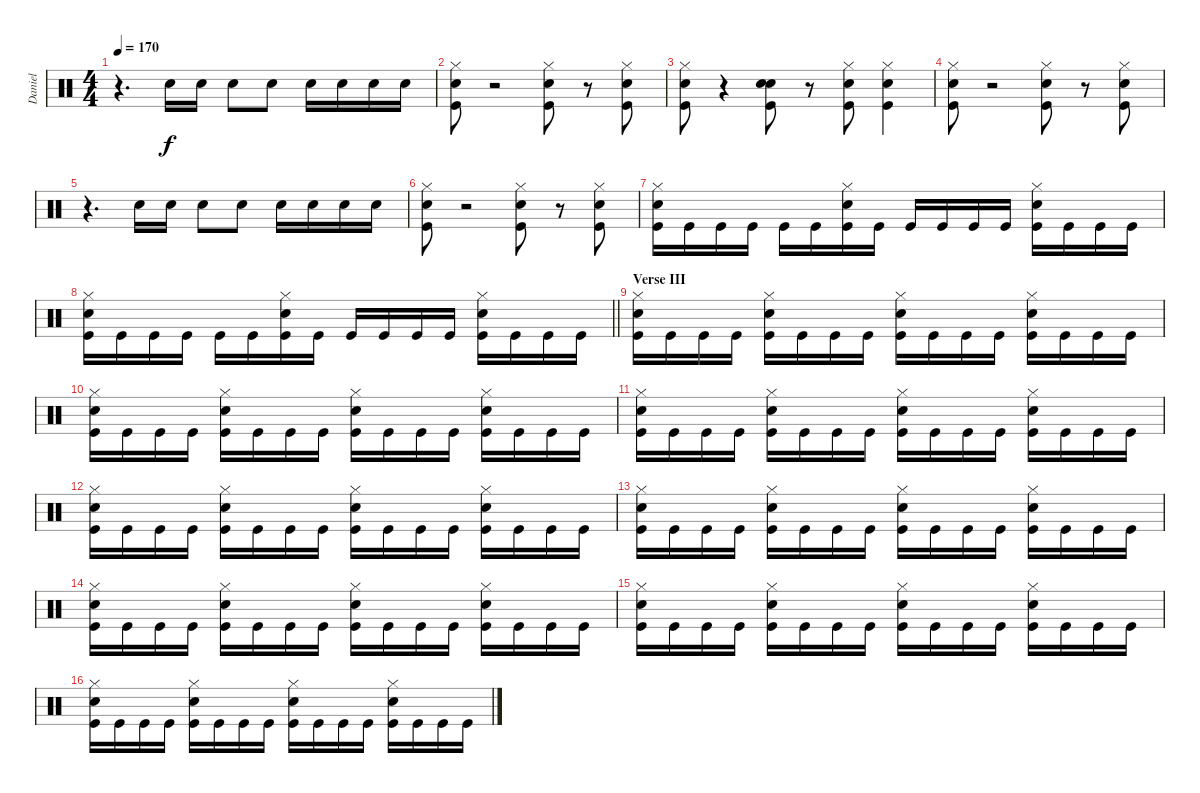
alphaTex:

\track ("Daniel" "Daniel") {instrument percussion}
\staff {score}
\articulation defaults
\ts (4 4)
\tempo 170
\clef neutral
\ks c
r.4{d dy f} "Snare (hit) 2".16 "Snare (hit) 2".16 "Snare (hit) 2".8 "Snare (hit) 2".8 "Snare (hit) 2".16 "Snare (hit) 2".16 "Snare (hit) 2".16 "Snare (hit) 2".16 |
("Kick (hit)" "Snare (hit) 2" "Hi-Hat (closed)").8 r.2 ("Kick (hit)" "Snare (hit) 2" "Hi-Hat (closed)").8 r.8 ("Kick (hit)" "Snare (hit) 2" "Hi-Hat (closed)").8 |
("Kick (hit)" "Snare (hit) 2" "Hi-Hat (closed)").8 r.4 ("Kick (hit)" "Snare (hit) 2" "Metronome (bell)").8 r.8 ("Kick (hit)" "Snare (hit) 2" "Hi-Hat (closed)").8 ("Kick (hit)" "Snare (hit) 2" "Hi-Hat (closed)").4 |
("Kick (hit)" "Snare (hit) 2" "Hi-Hat (closed)").8 r.2 ("Kick (hit)" "Snare (hit) 2" "Hi-Hat (closed)").8 r.8 ("Kick (hit)" "Snare (hit) 2" "Hi-Hat (closed)").8 |
r.4{d} "Snare (hit) 2".16 "Snare (hit) 2".16 "Snare (hit) 2".8 "Snare (hit) 2".8 "Snare (hit) 2".16 "Snare (hit) 2".16 "Snare (hit) 2".16 "Snare (hit) 2".16 |
("Kick (hit)" "Snare (hit) 2" "Hi-Hat (closed)").8 r.2 ("Kick (hit)" "Snare (hit) 2" "Hi-Hat (closed)").8 r.8 ("Kick (hit)" "Snare (hit) 2" "Hi-Hat (closed)").8 |
("Kick (hit)" "Snare (hit) 2" "Hi-Hat (closed)").16 "Kick (hit)".16 "Kick (hit)".16 "Kick (hit)".16 "Kick (hit)".16 "Kick (hit)".16 ("Kick (hit)" "Snare (hit) 2" "Hi-Hat (closed)").16 "Kick (hit)".16 "Kick (hit)".16 "Kick (hit)".16 "Kick (hit)".16 "Kick (hit)".16 ("Kick (hit)" "Snare (hit) 2" "Hi-Hat (closed)").16 "Kick (hit)".16 "Kick (hit)".16 "Kick (hit)".16 |
\barLineRight lightlight
("Kick (hit)" "Snare (hit) 2" "Hi-Hat (closed)").16 "Kick (hit)".16 "Kick (hit)".16 "Kick (hit)".16 "Kick (hit)".16 "Kick (hit)".16 ("Kick (hit)" "Snare (hit) 2" "Hi-Hat (closed)").16 "Kick (hit)".16 "Kick (hit)".16 "Kick (hit)".16 "Kick (hit)".16 "Kick (hit)".16 ("Kick (hit)" "Snare (hit) 2" "Hi-Hat (closed)").16 "Kick (hit)".16 "Kick (hit)".16 "Kick (hit)".16 |
\section ("" "Verse III")
("Kick (hit)" "Snare (hit) 2" "Hi-Hat (closed)").16 "Kick (hit)".16 "Kick (hit)".16 "Kick (hit)".16 ("Kick (hit)" "Snare (hit) 2" "Hi-Hat (closed)").16 "Kick (hit)".16 "Kick (hit)".16 "Kick (hit)".16 ("Kick (hit)" "Snare (hit) 2" "Hi-Hat (closed)").16 "Kick (hit)".16 "Kick (hit)".16 "Kick (hit)".16 ("Kick (hit)" "Snare (hit) 2" "Hi-Hat (closed)").16 "Kick (hit)".16 "Kick (hit)".16 "Kick (hit)".16 |
("Kick (hit)" "Snare (hit) 2" "Hi-Hat (closed)").16 "Kick (hit)".16 "Kick (hit)".16 "Kick (hit)".16 ("Kick (hit)" "Snare (hit) 2" "Hi-Hat (closed)").16 "Kick (hit)".16 "Kick (hit)".16 "Kick (hit)".16 ("Kick (hit)" "Snare (hit) 2" "Hi-Hat (closed)").16 "Kick (hit)".16 "Kick (hit)".16 "Kick (hit)".16 ("Kick (hit)" "Snare (hit) 2" "Hi-Hat (closed)").16 "Kick (hit)".16 "Kick (hit)".16 "Kick (hit)".16 |
("Kick (hit)" "Snare (hit) 2" "Hi-Hat (closed)").16 "Kick (hit)".16 "Kick (hit)".16 "Kick (hit)".16 ("Kick (hit)" "Snare (hit) 2" "Hi-Hat (closed)").16 "Kick (hit)".16 "Kick (hit)".16 "Kick (hit)".16 ("Kick (hit)" "Snare (hit) 2" "Hi-Hat (closed)").16 "Kick (hit)".16 "Kick (hit)".16 "Kick (hit)".16 ("Kick (hit)" "Snare (hit) 2" "Hi-Hat (closed)").16 "Kick (hit)".16 "Kick (hit)".16 "Kick (hit)".16 |
("Kick (hit)" "Snare (hit) 2" "Hi-Hat (closed)").16 "Kick (hit)".16 "Kick (hit)".16 "Kick (hit)".16 ("Kick (hit)" "Snare (hit) 2" "Hi-Hat (closed)").16 "Kick (hit)".16 "Kick (hit)".16 "Kick (hit)".16 ("Kick (hit)" "Snare (hit) 2" "Hi-Hat (closed)").16 "Kick (hit)".16 "Kick (hit)".16 "Kick (hit)".16 ("Kick (hit)" "Snare (hit) 2" "Hi-Hat (closed)").16 "Kick (hit)".16 "Kick (hit)".16 "Kick (hit)".16 |
("Kick (hit)" "Snare (hit) 2" "Hi-Hat (closed)").16 "Kick (hit)".16 "Kick (hit)".16 "Kick (hit)".16 ("Kick (hit)" "Snare (hit) 2" "Hi-Hat (closed)").16 "Kick (hit)".16 "Kick (hit)".16 "Kick (hit)".16 ("Kick (hit)" "Snare (hit) 2" "Hi-Hat (closed)").16 "Kick (hit)".16 "Kick (hit)".16 "Kick (hit)".16 ("Kick (hit)" "Snare (hit) 2" "Hi-Hat (closed)").16 "Kick (hit)".16 "Kick (hit)".16 "Kick (hit)".16 |
("Kick (hit)" "Snare (hit) 2" "Hi-Hat (closed)").16 "Kick (hit)".16 "Kick (hit)".16 "Kick (hit)".16 ("Kick (hit)" "Snare (hit) 2" "Hi-Hat (closed)").16 "Kick (hit)".16 "Kick (hit)".16 "Kick (hit)".16 ("Kick (hit)" "Snare (hit) 2" "Hi-Hat (closed)").16 "Kick (hit)".16 "Kick (hit)".16 "Kick (hit)".16 ("Kick (hit)" "Snare (hit) 2" "Hi-Hat (closed)").16 "Kick (hit)".16 "Kick (hit)".16 "Kick (hit)".16 |
("Kick (hit)" "Snare (hit) 2" "Hi-Hat (closed)").16 "Kick (hit)".16 "Kick (hit)".16 "Kick (hit)".16 ("Kick (hit)" "Snare (hit) 2" "Hi-Hat (closed)").16 "Kick (hit)".16 "Kick (hit)".16 "Kick (hit)".16 ("Kick (hit)" "Snare (hit) 2" "Hi-Hat (closed)").16 "Kick (hit)".16 "Kick (hit)".16 "Kick (hit)".16 ("Kick (hit)" "Snare (hit) 2" "Hi-Hat (closed)").16 "Kick (hit)".16 "Kick (hit)".16 "Kick (hit)".16 |
("Kick (hit)" "Snare (hit) 2" "Hi-Hat (closed)").16 "Kick (hit)".16 "Kick (hit)".16 "Kick (hit)".16 ("Kick (hit)" "Snare (hit) 2" "Hi-Hat (closed)").16 "Kick (hit)".16 "Kick (hit)".16 "Kick (hit)".16 ("Kick (hit)" "Snare (hit) 2" "Hi-Hat (closed)").16 "Kick (hit)".16 "Kick (hit)".16 "Kick (hit)".16 ("Kick (hit)" "Snare (hit) 2" "Hi-Hat (closed)").16 "Kick (hit)".16 "Kick (hit)".16 "Kick (hit)".16
